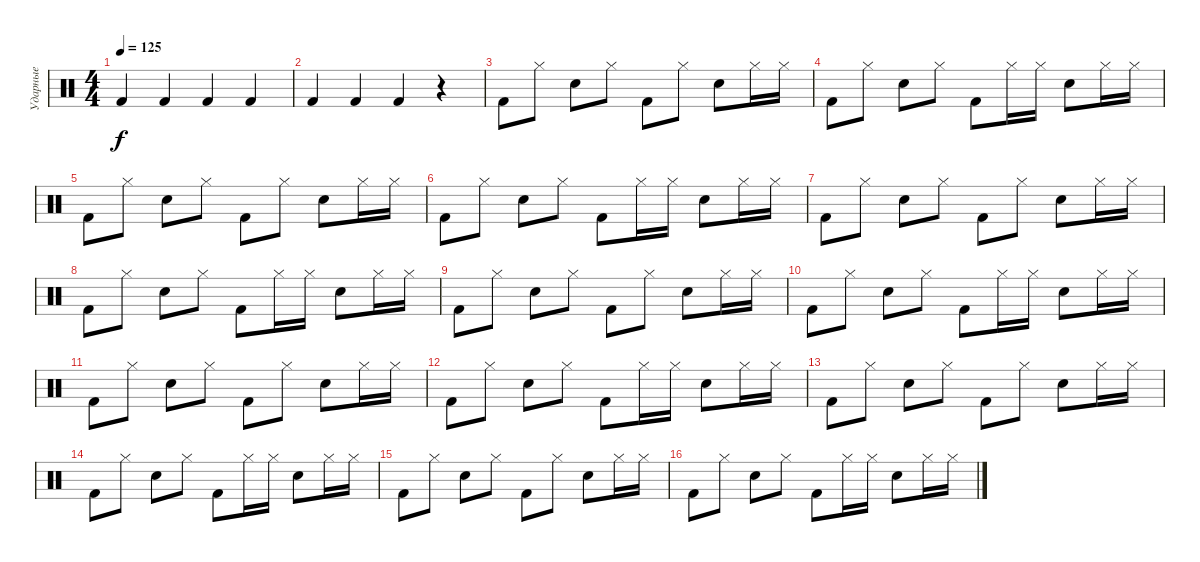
\track ("Ударные" "Ударные") {instrument percussion}
\staff {score}
\articulation defaults
\ts (4 4)
\tempo 125
\clef neutral
\ks c "Kick (hit) 2".4{dy f} "Kick (hit) 2".4 "Kick (hit) 2".4 "Kick (hit) 2".4
|
"Kick (hit) 2".4 "Kick (hit) 2".4 "Kick (hit) 2".4 r.4 |
"Kick (hit) 2".8 "Hi-Hat (closed)".8 "Snare (hit) 2".8 "Hi-Hat (closed)".8 "Kick (hit) 2".8 "Hi-Hat (closed)".8 "Snare (hit) 2".8 "Hi-Hat (closed)".16 "Hi-Hat (closed)".16 |
"Kick (hit) 2".8 "Hi-Hat (closed)".8 "Snare (hit) 2".8 "Hi-Hat (closed)".8 "Kick (hit) 2".8 "Hi-Hat (closed)".16 "Hi-Hat (closed)".16 "Snare (hit) 2".8 "Hi-Hat (closed)".16 "Hi-Hat (closed)".16 |
"Kick (hit) 2".8 "Hi-Hat (closed)".8 "Snare (hit) 2".8 "Hi-Hat (closed)".8 "Kick (hit) 2".8 "Hi-Hat (closed)".8 "Snare (hit) 2".8 "Hi-Hat (closed)".16 "Hi-Hat (closed)".16 |
"Kick (hit) 2".8 "Hi-Hat (closed)".8 "Snare (hit) 2".8 "Hi-Hat (closed)".8 "Kick (hit) 2".8 "Hi-Hat (closed)".16 "Hi-Hat (closed)".16 "Snare (hit) 2".8 "Hi-Hat (closed)".16 "Hi-Hat (closed)".16 |
"Kick (hit) 2".8 "Hi-Hat (closed)".8 "Snare (hit) 2".8 "Hi-Hat (closed)".8 "Kick (hit) 2".8 "Hi-Hat (closed)".8 "Snare (hit) 2".8 "Hi-Hat (closed)".16 "Hi-Hat (closed)".16 |
"Kick (hit) 2".8 "Hi-Hat (closed)".8 "Snare (hit) 2".8 "Hi-Hat (closed)".8 "Kick (hit) 2".8 "Hi-Hat (closed)".16 "Hi-Hat (closed)".16 "Snare (hit) 2".8 "Hi-Hat (closed)".16 "Hi-Hat (closed)".16 |
"Kick (hit) 2".8 "Hi-Hat (closed)".8 "Snare (hit) 2".8 "Hi-Hat (closed)".8 "Kick (hit) 2".8 "Hi-Hat (closed)".8 "Snare (hit) 2".8 "Hi-Hat (closed)".16 "Hi-Hat (closed)".16 |
"Kick (hit) 2".8 "Hi-Hat (closed)".8 "Snare (hit) 2".8 "Hi-Hat (closed)".8 "Kick (hit) 2".8 "Hi-Hat (closed)".16 "Hi-Hat (closed)".16 "Snare (hit) 2".8 "Hi-Hat (closed)".16 "Hi-Hat (closed)".16 |
"Kick (hit) 2".8 "Hi-Hat (closed)".8 "Snare (hit) 2".8 "Hi-Hat (closed)".8 "Kick (hit) 2".8 "Hi-Hat (closed)".8 "Snare (hit) 2".8 "Hi-Hat (closed)".16 "Hi-Hat (closed)".16 |
"Kick (hit) 2".8 "Hi-Hat (closed)".8 "Snare (hit) 2".8 "Hi-Hat (closed)".8 "Kick (hit) 2".8 "Hi-Hat (closed)".16 "Hi-Hat (closed)".16 "Snare (hit) 2".8 "Hi-Hat (closed)".16 "Hi-Hat (closed)".16 |
"Kick (hit) 2".8 "Hi-Hat (closed)".8 "Snare (hit) 2".8 "Hi-Hat (closed)".8 "Kick (hit) 2".8 "Hi-Hat (closed)".8 "Snare (hit) 2".8 "Hi-Hat (closed)".16 "Hi-Hat (closed)".16 |
"Kick (hit) 2".8 "Hi-Hat (closed)".8 "Snare (hit) 2".8 "Hi-Hat (closed)".8 "Kick (hit) 2".8 "Hi-Hat (closed)".16 "Hi-Hat (closed)".16 "Snare (hit) 2".8 "Hi-Hat (closed)".16 "Hi-Hat (closed)".16 |
"Kick (hit) 2".8 "Hi-Hat (closed)".8 "Snare (hit) 2".8 "Hi-Hat (closed)".8 "Kick (hit) 2".8 "Hi-Hat (closed)".8 "Snare (hit) 2".8 "Hi-Hat (closed)".16 "Hi-Hat (closed)".16 |
"Kick (hit) 2".8 "Hi-Hat (closed)".8 "Snare (hit) 2".8 "Hi-Hat (closed)".8 "Kick (hit) 2".8 "Hi-Hat (closed)".16 "Hi-Hat (closed)".16 "Snare (hit) 2".8 "Hi-Hat (closed)".16 "Hi-Hat (closed)".16
